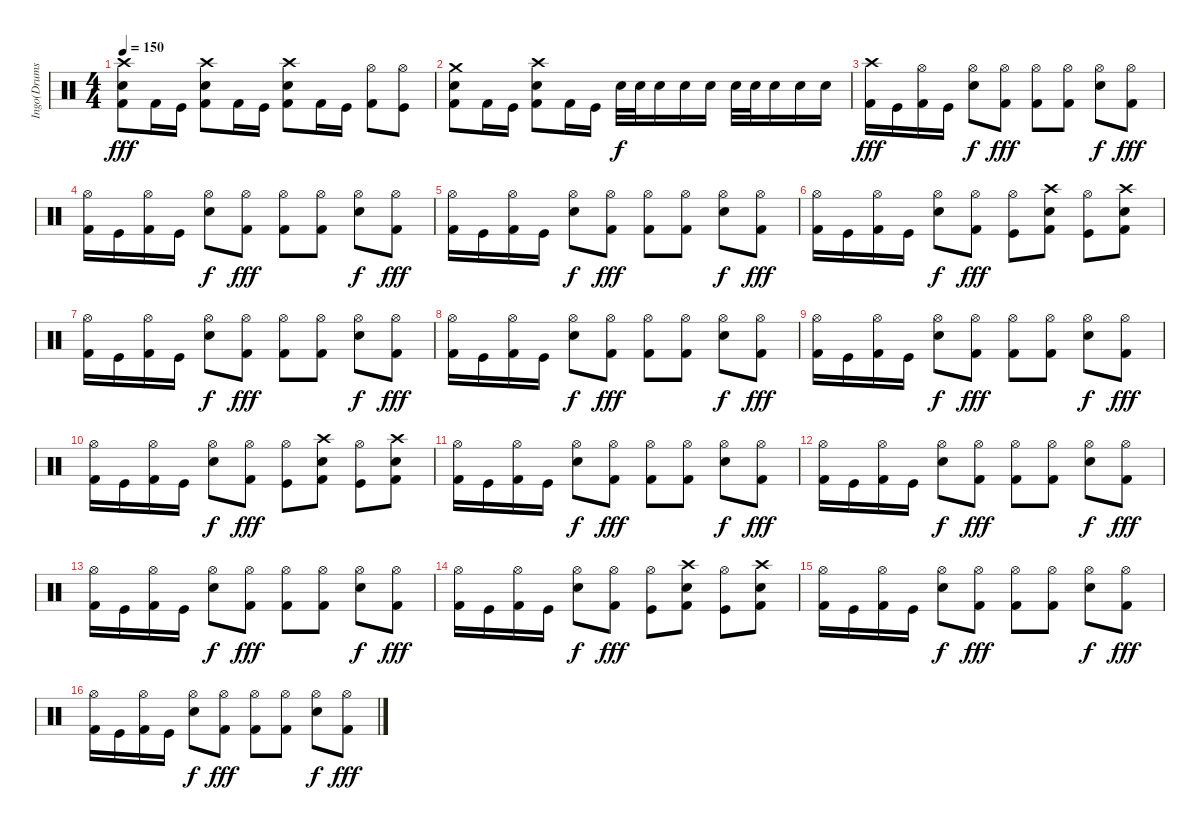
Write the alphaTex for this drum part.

\track ("Ingo(Drums)" "Ingo(Drums") {instrument percussion}
\staff {score}
\articulation defaults
\ts (4 4)
\tempo 150
\clef neutral
\ks c
("Crash high (hit)" "Electric Snare (hit)" "Kick (hit) 2").8{dy fff} "Kick (hit) 2".16 "Kick (hit)".16 ("Crash high (hit)" "Electric Snare (hit)" "Kick (hit) 2").8 "Kick (hit) 2".16 "Kick (hit)".16 ("Crash high (hit)" "Electric Snare (hit)" "Kick (hit) 2").8 "Kick (hit) 2".16 "Kick (hit)".16 ("Hi-Hat (open)" "Kick (hit) 2").8 ("Hi-Hat (open)" "Kick (hit)").8 |
("Crash medium (hit)" "Electric Snare (hit)" "Kick (hit) 2").8 "Kick (hit) 2".16 "Kick (hit)".16 ("Crash high (hit)" "Electric Snare (hit)" "Kick (hit) 2").8 "Kick (hit) 2".16 "Kick (hit)".16 "Electric Snare (hit)".32{dy f} "Electric Snare (hit)".32 "Electric Snare (hit)".16 "Electric Snare (hit)".16 "Electric Snare (hit)".16 "Electric Snare (hit)".32 "Electric Snare (hit)".32 "Electric Snare (hit)".16 "Electric Snare (hit)".16 "Electric Snare (hit)".16 |
("Crash high (hit)" "Kick (hit) 2").16{dy fff} "Kick (hit)".16 ("Hi-Hat (open)" "Kick (hit) 2").16 "Kick (hit)".16 ("Hi-Hat (open)" "Electric Snare (hit)").8{dy f} ("Hi-Hat (open)" "Kick (hit) 2").8{dy fff} ("Hi-Hat (open)" "Kick (hit) 2").8 ("Hi-Hat (open)" "Kick (hit) 2").8 ("Hi-Hat (open)" "Electric Snare (hit)").8{dy f} ("Hi-Hat (open)" "Kick (hit) 2").8{dy fff} |
("Hi-Hat (open)" "Kick (hit) 2").16 "Kick (hit)".16 ("Hi-Hat (open)" "Kick (hit) 2").16 "Kick (hit)".16 ("Hi-Hat (open)" "Electric Snare (hit)").8{dy f} ("Hi-Hat (open)" "Kick (hit) 2").8{dy fff} ("Hi-Hat (open)" "Kick (hit) 2").8 ("Hi-Hat (open)" "Kick (hit) 2").8 ("Hi-Hat (open)" "Electric Snare (hit)").8{dy f} ("Hi-Hat (open)" "Kick (hit) 2").8{dy fff} |
("Hi-Hat (open)" "Kick (hit) 2").16 "Kick (hit)".16 ("Hi-Hat (open)" "Kick (hit) 2").16 "Kick (hit)".16 ("Hi-Hat (open)" "Electric Snare (hit)").8{dy f} ("Hi-Hat (open)" "Kick (hit) 2").8{dy fff} ("Hi-Hat (open)" "Kick (hit) 2").8 ("Hi-Hat (open)" "Kick (hit) 2").8 ("Hi-Hat (open)" "Electric Snare (hit)").8{dy f} ("Hi-Hat (open)" "Kick (hit) 2").8{dy fff} |
("Hi-Hat (open)" "Kick (hit) 2").16 "Kick (hit)".16 ("Hi-Hat (open)" "Kick (hit) 2").16 "Kick (hit)".16 ("Hi-Hat (open)" "Electric Snare (hit)").8{dy f} ("Hi-Hat (open)" "Kick (hit) 2").8{dy fff} ("Hi-Hat (open)" "Kick (hit)").8 ("Crash high (hit)" "Electric Snare (hit)" "Kick (hit) 2").8 ("Hi-Hat (open)" "Kick (hit)").8 ("Crash high (hit)" "Electric Snare (hit)" "Kick (hit) 2").8 |
("Hi-Hat (open)" "Kick (hit) 2").16 "Kick (hit)".16 ("Hi-Hat (open)" "Kick (hit) 2").16 "Kick (hit)".16 ("Hi-Hat (open)" "Electric Snare (hit)").8{dy f} ("Hi-Hat (open)" "Kick (hit) 2").8{dy fff} ("Hi-Hat (open)" "Kick (hit) 2").8 ("Hi-Hat (open)" "Kick (hit) 2").8 ("Hi-Hat (open)" "Electric Snare (hit)").8{dy f} ("Hi-Hat (open)" "Kick (hit) 2").8{dy fff} |
("Hi-Hat (open)" "Kick (hit) 2").16 "Kick (hit)".16 ("Hi-Hat (open)" "Kick (hit) 2").16 "Kick (hit)".16 ("Hi-Hat (open)" "Electric Snare (hit)").8{dy f} ("Hi-Hat (open)" "Kick (hit) 2").8{dy fff} ("Hi-Hat (open)" "Kick (hit) 2").8 ("Hi-Hat (open)" "Kick (hit) 2").8 ("Hi-Hat (open)" "Electric Snare (hit)").8{dy f} ("Hi-Hat (open)" "Kick (hit) 2").8{dy fff} |
("Hi-Hat (open)" "Kick (hit) 2").16 "Kick (hit)".16 ("Hi-Hat (open)" "Kick (hit) 2").16 "Kick (hit)".16 ("Hi-Hat (open)" "Electric Snare (hit)").8{dy f} ("Hi-Hat (open)" "Kick (hit) 2").8{dy fff} ("Hi-Hat (open)" "Kick (hit) 2").8 ("Hi-Hat (open)" "Kick (hit) 2").8 ("Hi-Hat (open)" "Electric Snare (hit)").8{dy f} ("Hi-Hat (open)" "Kick (hit) 2").8{dy fff} |
("Hi-Hat (open)" "Kick (hit) 2").16 "Kick (hit)".16 ("Hi-Hat (open)" "Kick (hit) 2").16 "Kick (hit)".16 ("Hi-Hat (open)" "Electric Snare (hit)").8{dy f} ("Hi-Hat (open)" "Kick (hit) 2").8{dy fff} ("Hi-Hat (open)" "Kick (hit)").8 ("Crash high (hit)" "Electric Snare (hit)" "Kick (hit) 2").8 ("Hi-Hat (open)" "Kick (hit)").8 ("Crash high (hit)" "Electric Snare (hit)" "Kick (hit) 2").8 |
("Hi-Hat (open)" "Kick (hit) 2").16 "Kick (hit)".16 ("Hi-Hat (open)" "Kick (hit) 2").16 "Kick (hit)".16 ("Hi-Hat (open)" "Electric Snare (hit)").8{dy f} ("Hi-Hat (open)" "Kick (hit) 2").8{dy fff} ("Hi-Hat (open)" "Kick (hit) 2").8 ("Hi-Hat (open)" "Kick (hit) 2").8 ("Hi-Hat (open)" "Electric Snare (hit)").8{dy f} ("Hi-Hat (open)" "Kick (hit) 2").8{dy fff} |
("Hi-Hat (open)" "Kick (hit) 2").16 "Kick (hit)".16 ("Hi-Hat (open)" "Kick (hit) 2").16 "Kick (hit)".16 ("Hi-Hat (open)" "Electric Snare (hit)").8{dy f} ("Hi-Hat (open)" "Kick (hit) 2").8{dy fff} ("Hi-Hat (open)" "Kick (hit) 2").8 ("Hi-Hat (open)" "Kick (hit) 2").8 ("Hi-Hat (open)" "Electric Snare (hit)").8{dy f} ("Hi-Hat (open)" "Kick (hit) 2").8{dy fff} |
("Hi-Hat (open)" "Kick (hit) 2").16 "Kick (hit)".16 ("Hi-Hat (open)" "Kick (hit) 2").16 "Kick (hit)".16 ("Hi-Hat (open)" "Electric Snare (hit)").8{dy f} ("Hi-Hat (open)" "Kick (hit) 2").8{dy fff} ("Hi-Hat (open)" "Kick (hit) 2").8 ("Hi-Hat (open)" "Kick (hit) 2").8 ("Hi-Hat (open)" "Electric Snare (hit)").8{dy f} ("Hi-Hat (open)" "Kick (hit) 2").8{dy fff} |
("Hi-Hat (open)" "Kick (hit) 2").16 "Kick (hit)".16 ("Hi-Hat (open)" "Kick (hit) 2").16 "Kick (hit)".16 ("Hi-Hat (open)" "Electric Snare (hit)").8{dy f} ("Hi-Hat (open)" "Kick (hit) 2").8{dy fff} ("Hi-Hat (open)" "Kick (hit)").8 ("Crash high (hit)" "Electric Snare (hit)" "Kick (hit) 2").8 ("Hi-Hat (open)" "Kick (hit)").8 ("Crash high (hit)" "Electric Snare (hit)" "Kick (hit) 2").8 |
("Hi-Hat (open)" "Kick (hit) 2").16 "Kick (hit)".16 ("Hi-Hat (open)" "Kick (hit) 2").16 "Kick (hit)".16 ("Hi-Hat (open)" "Electric Snare (hit)").8{dy f} ("Hi-Hat (open)" "Kick (hit) 2").8{dy fff} ("Hi-Hat (open)" "Kick (hit) 2").8 ("Hi-Hat (open)" "Kick (hit) 2").8 ("Hi-Hat (open)" "Electric Snare (hit)").8{dy f} ("Hi-Hat (open)" "Kick (hit) 2").8{dy fff} |
("Hi-Hat (open)" "Kick (hit) 2").16 "Kick (hit)".16 ("Hi-Hat (open)" "Kick (hit) 2").16 "Kick (hit)".16 ("Hi-Hat (open)" "Electric Snare (hit)").8{dy f} ("Hi-Hat (open)" "Kick (hit) 2").8{dy fff} ("Hi-Hat (open)" "Kick (hit) 2").8 ("Hi-Hat (open)" "Kick (hit) 2").8 ("Hi-Hat (open)" "Electric Snare (hit)").8{dy f} ("Hi-Hat (open)" "Kick (hit) 2").8{dy fff}
